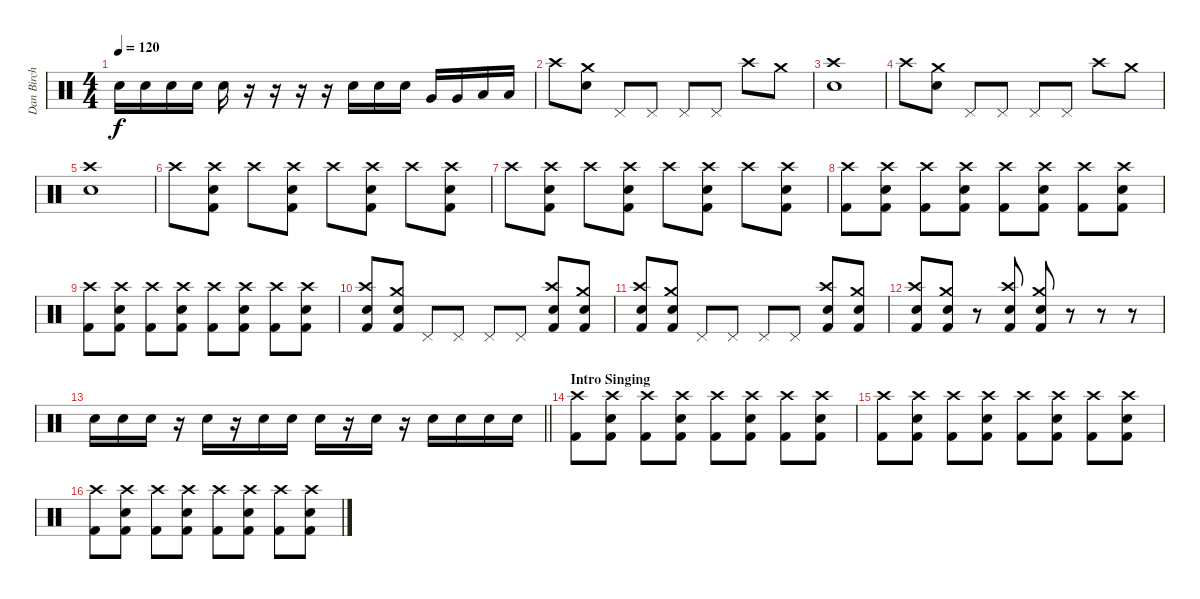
\track ("Dan Birch" "Dan Birch") {instrument percussion}
\staff {score}
\articulation defaults
\ts (4 4)
\tempo 120
\clef neutral
\ks c "Snare (hit) 2".16{dy f} "Snare (hit) 2".16 "Snare (hit) 2".16 "Snare (hit) 2".16 "Snare (hit) 2".16
r.16 r.16 r.16 r.16 "Snare (hit) 2".16 "Snare (hit) 2".16 "Snare (hit) 2".16 "Very Low Tom (hit)".16 "Very Low Tom (hit)".16 "Low Tom (hit)".16 "Low Tom (hit)".16 |
"Crash high (hit)".8 ("Crash medium (hit)" "Snare (hit) 2").8 "Pedal Hi-Hat (hit)".8 "Pedal Hi-Hat (hit)".8 "Pedal Hi-Hat (hit)".8 "Pedal Hi-Hat (hit)".8 "Crash high (hit)".8 "Crash medium (hit)".8 |
("Crash high (hit)" "Snare (hit) 2").1 |
"Crash high (hit)".8 ("Crash medium (hit)" "Snare (hit) 2").8 "Pedal Hi-Hat (hit)".8 "Pedal Hi-Hat (hit)".8 "Pedal Hi-Hat (hit)".8 "Pedal Hi-Hat (hit)".8 "Crash high (hit)".8 "Crash medium (hit)".8 |
("Crash high (hit)" "Snare (hit) 2").1 |
"Crash high (hit)".8 ("Crash high (hit)" "Snare (hit) 2" "Kick (hit) 2").8 "Crash high (hit)".8 ("Crash high (hit)" "Snare (hit) 2" "Kick (hit) 2").8 "Crash high (hit)".8 ("Crash high (hit)" "Snare (hit) 2" "Kick (hit) 2").8 "Crash high (hit)".8 ("Crash high (hit)" "Snare (hit) 2" "Kick (hit) 2").8 |
"Crash high (hit)".8 ("Crash high (hit)" "Snare (hit) 2" "Kick (hit) 2").8 "Crash high (hit)".8 ("Crash high (hit)" "Snare (hit) 2" "Kick (hit) 2").8 "Crash high (hit)".8 ("Crash high (hit)" "Snare (hit) 2" "Kick (hit) 2").8 "Crash high (hit)".8 ("Crash high (hit)" "Snare (hit) 2" "Kick (hit) 2").8 |
("Crash high (hit)" "Kick (hit) 2").8 ("Crash high (hit)" "Snare (hit) 2" "Kick (hit) 2").8 ("Crash high (hit)" "Kick (hit) 2").8 ("Crash high (hit)" "Snare (hit) 2" "Kick (hit) 2").8 ("Crash high (hit)" "Kick (hit) 2").8 ("Crash high (hit)" "Snare (hit) 2" "Kick (hit) 2").8 ("Crash high (hit)" "Kick (hit) 2").8 ("Crash high (hit)" "Snare (hit) 2" "Kick (hit) 2").8 |
("Crash high (hit)" "Kick (hit) 2").8 ("Crash high (hit)" "Snare (hit) 2" "Kick (hit) 2").8 ("Crash high (hit)" "Kick (hit) 2").8 ("Crash high (hit)" "Snare (hit) 2" "Kick (hit) 2").8 ("Crash high (hit)" "Kick (hit) 2").8 ("Crash high (hit)" "Snare (hit) 2" "Kick (hit) 2").8 ("Crash high (hit)" "Kick (hit) 2").8 ("Crash high (hit)" "Snare (hit) 2" "Kick (hit) 2").8 |
("Crash high (hit)" "Snare (hit) 2" "Kick (hit) 2").8 ("Crash medium (hit)" "Snare (hit) 2" "Kick (hit) 2").8 "Pedal Hi-Hat (hit)".8 "Pedal Hi-Hat (hit)".8 "Pedal Hi-Hat (hit)".8 "Pedal Hi-Hat (hit)".8 ("Crash high (hit)" "Snare (hit) 2" "Kick (hit) 2").8 ("Crash medium (hit)" "Snare (hit) 2" "Kick (hit) 2").8 |
("Crash high (hit)" "Snare (hit) 2" "Kick (hit) 2").8 ("Crash medium (hit)" "Snare (hit) 2" "Kick (hit) 2").8 "Pedal Hi-Hat (hit)".8 "Pedal Hi-Hat (hit)".8 "Pedal Hi-Hat (hit)".8 "Pedal Hi-Hat (hit)".8 ("Crash high (hit)" "Snare (hit) 2" "Kick (hit) 2").8 ("Crash medium (hit)" "Snare (hit) 2" "Kick (hit) 2").8 |
("Crash high (hit)" "Snare (hit) 2" "Kick (hit) 2").8 ("Crash medium (hit)" "Snare (hit) 2" "Kick (hit) 2").8 r.8 ("Crash high (hit)" "Snare (hit) 2" "Kick (hit) 2").8 ("Crash medium (hit)" "Snare (hit) 2" "Kick (hit) 2").8 r.8 r.8 r.8 |
\barLineRight lightlight "Snare (hit) 2".16 "Snare (hit) 2".16 "Snare (hit) 2".16
r.16 "Snare (hit) 2".16 r.16 "Snare (hit) 2".16 "Snare (hit) 2".16 "Snare (hit) 2".16 r.16 "Snare (hit) 2".16 r.16 "Snare (hit) 2".16 "Snare (hit) 2".16 "Snare (hit) 2".16 "Snare (hit) 2".16 |
\section ("" "Intro Singing")
("Crash high (hit)" "Kick (hit) 2").8 ("Crash high (hit)" "Snare (hit) 2" "Kick (hit) 2").8 ("Crash high (hit)" "Kick (hit) 2").8 ("Crash high (hit)" "Snare (hit) 2" "Kick (hit) 2").8 ("Crash high (hit)" "Kick (hit) 2").8 ("Crash high (hit)" "Snare (hit) 2" "Kick (hit) 2").8 ("Crash high (hit)" "Kick (hit) 2").8 ("Crash high (hit)" "Snare (hit) 2" "Kick (hit) 2").8 |
("Crash high (hit)" "Kick (hit) 2").8 ("Crash high (hit)" "Snare (hit) 2" "Kick (hit) 2").8 ("Crash high (hit)" "Kick (hit) 2").8 ("Crash high (hit)" "Snare (hit) 2" "Kick (hit) 2").8 ("Crash high (hit)" "Kick (hit) 2").8 ("Crash high (hit)" "Snare (hit) 2" "Kick (hit) 2").8 ("Crash high (hit)" "Kick (hit) 2").8 ("Crash high (hit)" "Snare (hit) 2" "Kick (hit) 2").8 |
("Crash high (hit)" "Kick (hit) 2").8 ("Crash high (hit)" "Snare (hit) 2" "Kick (hit) 2").8 ("Crash high (hit)" "Kick (hit) 2").8 ("Crash high (hit)" "Snare (hit) 2" "Kick (hit) 2").8 ("Crash high (hit)" "Kick (hit) 2").8 ("Crash high (hit)" "Snare (hit) 2" "Kick (hit) 2").8 ("Crash high (hit)" "Kick (hit) 2").8 ("Crash high (hit)" "Snare (hit) 2" "Kick (hit) 2").8
